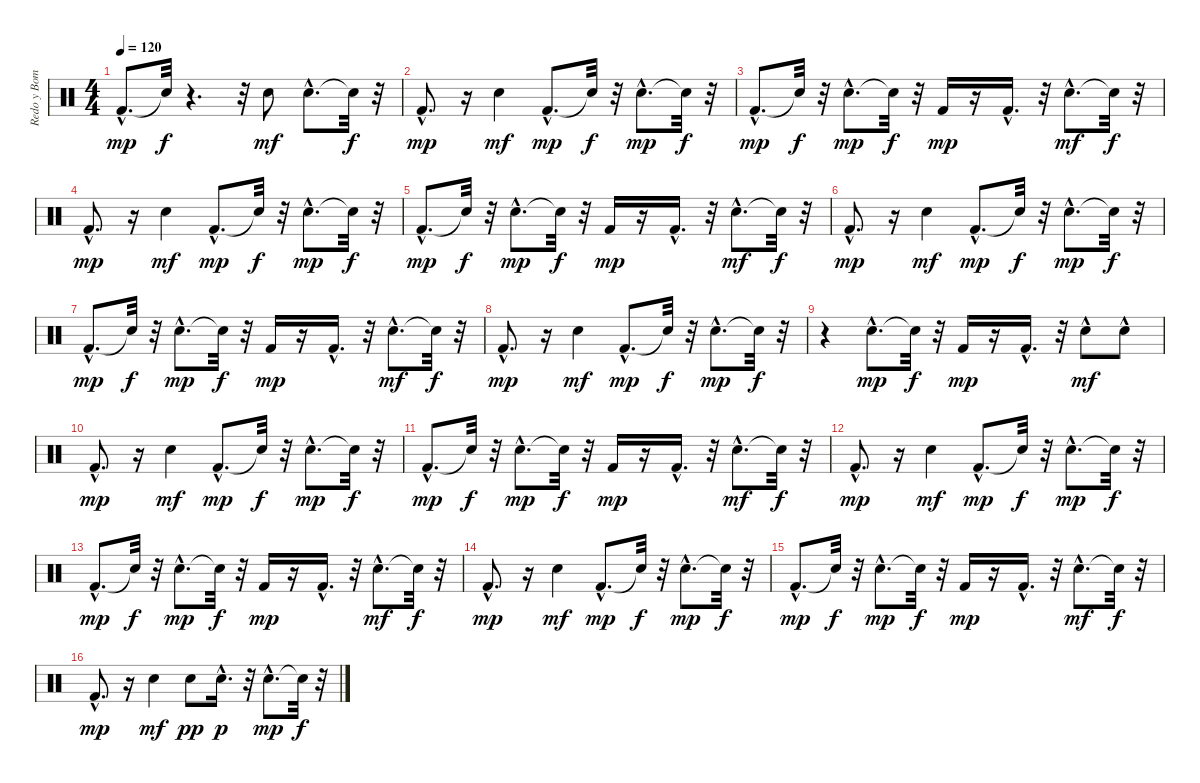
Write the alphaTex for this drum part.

\track ("Redo y Bombo" "Redo y Bom") {instrument percussion}
\staff {score}
\articulation defaults
\ts (4 4)
\tempo 120
\clef neutral
\ks c "Kick (hit) 2"{hac}.8{d dy mp} "Snare (hit)"{t}.32{dy f}
r.4{d} r.32 "Snare (hit) 2".8{dy mf} "Snare (hit) 2"{hac}.8{d} "Snare (hit)"{t}.32{dy f} r.32 |
"Kick (hit) 2"{hac}.8{d dy mp} r.16 "Snare (hit) 2".4{dy mf} "Kick (hit) 2"{hac}.8{d dy mp} "Snare (hit)"{t}.32{dy f} r.32 "Snare (hit) 2"{hac}.8{d dy mp} "Snare (hit)"{t}.32{dy f} r.32 |
"Kick (hit) 2"{hac}.8{d dy mp} "Snare (hit)"{t}.32{dy f} r.32 "Snare (hit) 2"{hac}.8{d dy mp} "Snare (hit)"{t}.32{dy f} r.32 "Kick (hit) 2".16{dy mp} r.16 "Kick (hit) 2"{hac}.16{d} r.32 "Snare (hit) 2"{hac}.8{d dy mf} "Snare (hit)"{t}.32{dy f} r.32 |
"Kick (hit) 2"{hac}.8{d dy mp} r.16 "Snare (hit) 2".4{dy mf} "Kick (hit) 2"{hac}.8{d dy mp} "Snare (hit)"{t}.32{dy f} r.32 "Snare (hit) 2"{hac}.8{d dy mp} "Snare (hit)"{t}.32{dy f} r.32 |
"Kick (hit) 2"{hac}.8{d dy mp} "Snare (hit)"{t}.32{dy f} r.32 "Snare (hit) 2"{hac}.8{d dy mp} "Snare (hit)"{t}.32{dy f} r.32 "Kick (hit) 2".16{dy mp} r.16 "Kick (hit) 2"{hac}.16{d} r.32 "Snare (hit) 2"{hac}.8{d dy mf} "Snare (hit)"{t}.32{dy f} r.32 |
"Kick (hit) 2"{hac}.8{d dy mp} r.16 "Snare (hit) 2".4{dy mf} "Kick (hit) 2"{hac}.8{d dy mp} "Snare (hit)"{t}.32{dy f} r.32 "Snare (hit) 2"{hac}.8{d dy mp} "Snare (hit)"{t}.32{dy f} r.32 |
"Kick (hit) 2"{hac}.8{d dy mp} "Snare (hit)"{t}.32{dy f} r.32 "Snare (hit) 2"{hac}.8{d dy mp} "Snare (hit)"{t}.32{dy f} r.32 "Kick (hit) 2".16{dy mp} r.16 "Kick (hit) 2"{hac}.16{d} r.32 "Snare (hit) 2"{hac}.8{d dy mf} "Snare (hit)"{t}.32{dy f} r.32 |
"Kick (hit) 2"{hac}.8{d dy mp} r.16 "Snare (hit) 2".4{dy mf} "Kick (hit) 2"{hac}.8{d dy mp} "Snare (hit)"{t}.32{dy f} r.32 "Snare (hit) 2"{hac}.8{d dy mp} "Snare (hit)"{t}.32{dy f} r.32 |
r.4 "Snare (hit) 2"{hac}.8{d dy mp} "Snare (hit)"{t}.32{dy f} r.32 "Kick (hit) 2".16{dy mp} r.16 "Kick (hit) 2"{hac}.16{d} r.32 "Snare (hit) 2"{hac}.8{dy mf} "Electric Snare (hit)"{hac}.8 |
"Kick (hit) 2"{hac}.8{d dy mp} r.16 "Snare (hit) 2".4{dy mf} "Kick (hit) 2"{hac}.8{d dy mp} "Snare (hit)"{t}.32{dy f} r.32 "Snare (hit) 2"{hac}.8{d dy mp} "Snare (hit)"{t}.32{dy f} r.32 |
"Kick (hit) 2"{hac}.8{d dy mp} "Snare (hit)"{t}.32{dy f} r.32 "Snare (hit) 2"{hac}.8{d dy mp} "Snare (hit)"{t}.32{dy f} r.32 "Kick (hit) 2".16{dy mp} r.16 "Kick (hit) 2"{hac}.16{d} r.32 "Snare (hit) 2"{hac}.8{d dy mf} "Snare (hit)"{t}.32{dy f} r.32 |
"Kick (hit) 2"{hac}.8{d dy mp} r.16 "Snare (hit) 2".4{dy mf} "Kick (hit) 2"{hac}.8{d dy mp} "Snare (hit)"{t}.32{dy f} r.32 "Snare (hit) 2"{hac}.8{d dy mp} "Snare (hit)"{t}.32{dy f} r.32 |
"Kick (hit) 2"{hac}.8{d dy mp} "Snare (hit)"{t}.32{dy f} r.32 "Snare (hit) 2"{hac}.8{d dy mp} "Snare (hit)"{t}.32{dy f} r.32 "Kick (hit) 2".16{dy mp} r.16 "Kick (hit) 2"{hac}.16{d} r.32 "Snare (hit) 2"{hac}.8{d dy mf} "Snare (hit)"{t}.32{dy f} r.32 |
"Kick (hit) 2"{hac}.8{d dy mp} r.16 "Snare (hit) 2".4{dy mf} "Kick (hit) 2"{hac}.8{d dy mp} "Snare (hit)"{t}.32{dy f} r.32 "Snare (hit) 2"{hac}.8{d dy mp} "Snare (hit)"{t}.32{dy f} r.32 |
"Kick (hit) 2"{hac}.8{d dy mp} "Snare (hit)"{t}.32{dy f} r.32 "Snare (hit) 2"{hac}.8{d dy mp} "Snare (hit)"{t}.32{dy f} r.32 "Kick (hit) 2".16{dy mp} r.16 "Kick (hit) 2"{hac}.16{d} r.32 "Snare (hit) 2"{hac}.8{d dy mf} "Snare (hit)"{t}.32{dy f} r.32 |
"Kick (hit) 2"{hac}.8{d dy mp} r.16 "Snare (hit) 2".4{dy mf} "Electric Snare (hit)".8{dy pp} "Electric Snare (hit)"{hac}.16{d dy p} r.32 "Electric Snare (hit)"{hac}.8{d dy mp} "Snare (hit)"{t}.32{dy f} r.32
